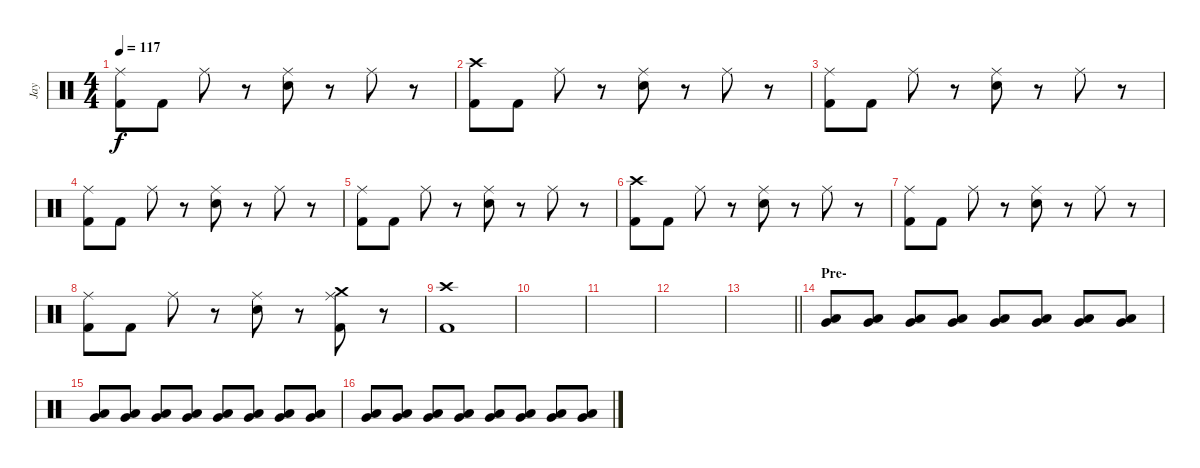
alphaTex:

\track ("Jay" "Jay") {instrument percussion}
\staff {score}
\articulation defaults
\ts (4 4)
\tempo 117
\clef neutral
\ks c
("Ride (middle)" "Kick (hit) 2").8{dy f} "Kick (hit) 2".8 "Ride (middle)".8 r.8 ("Ride (middle)" "Snare (hit) 2").8 r.8 "Ride (middle)".8 r.8 |
("Crash high (hit)" "Kick (hit) 2").8 "Kick (hit) 2".8 "Ride (middle)".8 r.8 ("Ride (middle)" "Snare (hit) 2").8 r.8 "Ride (middle)".8 r.8 |
("Ride (middle)" "Kick (hit) 2").8 "Kick (hit) 2".8 "Ride (middle)".8 r.8 ("Ride (middle)" "Snare (hit) 2").8 r.8 "Ride (middle)".8 r.8 |
("Ride (middle)" "Kick (hit) 2").8 "Kick (hit) 2".8 "Ride (middle)".8 r.8 ("Ride (middle)" "Snare (hit) 2").8 r.8 "Ride (middle)".8 r.8 |
("Ride (middle)" "Kick (hit) 2").8 "Kick (hit) 2".8 "Ride (middle)".8 r.8 ("Ride (middle)" "Snare (hit) 2").8 r.8 "Ride (middle)".8 r.8 |
("Crash high (hit)" "Kick (hit) 2").8 "Kick (hit) 2".8 "Ride (middle)".8 r.8 ("Ride (middle)" "Snare (hit) 2").8 r.8 "Ride (middle)".8 r.8 |
("Ride (middle)" "Kick (hit) 2").8 "Kick (hit) 2".8 "Ride (middle)".8 r.8 ("Ride (middle)" "Snare (hit) 2").8 r.8 "Ride (middle)".8 r.8 |
("Ride (middle)" "Kick (hit) 2").8 "Kick (hit) 2".8 "Ride (middle)".8 r.8 ("Ride (middle)" "Snare (hit) 2").8 r.8 ("Ride (middle)" "Crash medium (hit)" "Kick (hit) 2").8 r.8 |
("Crash high (hit)" "Kick (hit) 2").1 |
|
|
|
\barLineRight lightlight
|
\section ("" "Pre-")
("Low Tom (hit)" "Very Low Tom (hit)").8 ("Low Tom (hit)" "Very Low Tom (hit)").8 ("Low Tom (hit)" "Very Low Tom (hit)").8 ("Low Tom (hit)" "Very Low Tom (hit)").8 ("Low Tom (hit)" "Very Low Tom (hit)").8 ("Low Tom (hit)" "Very Low Tom (hit)").8 ("Low Tom (hit)" "Very Low Tom (hit)").8 ("Low Tom (hit)" "Very Low Tom (hit)").8 |
("Low Tom (hit)" "Very Low Tom (hit)").8 ("Low Tom (hit)" "Very Low Tom (hit)").8 ("Low Tom (hit)" "Very Low Tom (hit)").8 ("Low Tom (hit)" "Very Low Tom (hit)").8 ("Low Tom (hit)" "Very Low Tom (hit)").8 ("Low Tom (hit)" "Very Low Tom (hit)").8 ("Low Tom (hit)" "Very Low Tom (hit)").8 ("Low Tom (hit)" "Very Low Tom (hit)").8 |
("Low Tom (hit)" "Very Low Tom (hit)").8 ("Low Tom (hit)" "Very Low Tom (hit)").8 ("Low Tom (hit)" "Very Low Tom (hit)").8 ("Low Tom (hit)" "Very Low Tom (hit)").8 ("Low Tom (hit)" "Very Low Tom (hit)").8 ("Low Tom (hit)" "Very Low Tom (hit)").8 ("Low Tom (hit)" "Very Low Tom (hit)").8 ("Low Tom (hit)" "Very Low Tom (hit)").8
